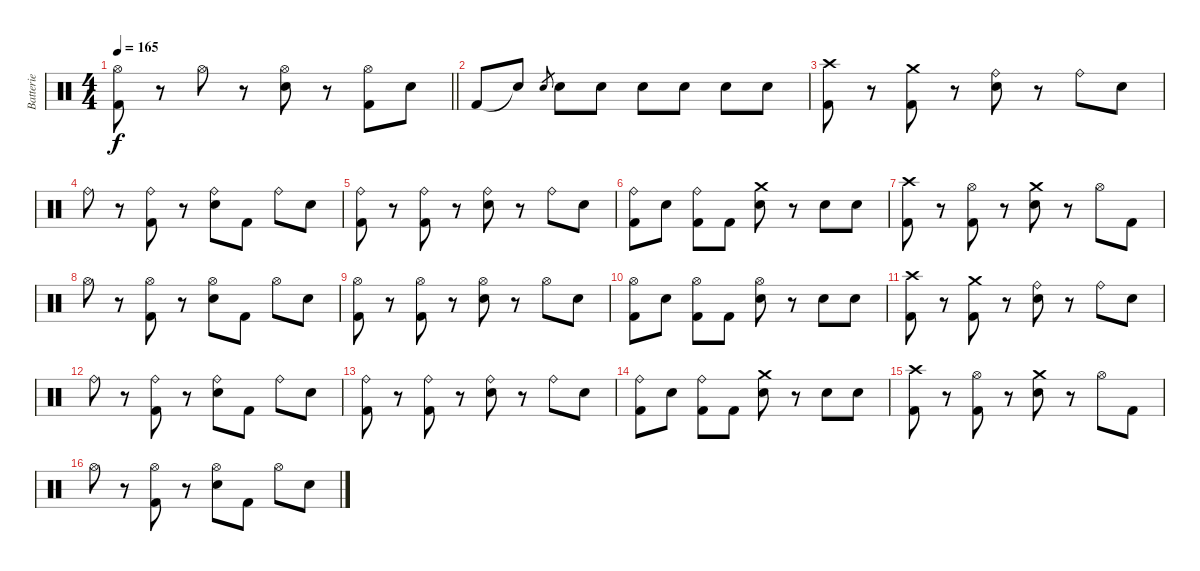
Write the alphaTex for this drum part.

\track ("Batterie" "Batterie") {instrument percussion}
\staff {score}
\articulation defaults
\ts (4 4)
\tempo 165
\clef neutral
\barLineRight lightlight
\ks c
("Hi-Hat (open)" "Kick (hit) 2").8{dy f} r.8 "Hi-Hat (open)".8 r.8 ("Hi-Hat (open)" "Electric Snare (hit)").8 r.8 ("Hi-Hat (open)" "Kick (hit) 2").8 "Electric Snare (hit)".8 |
"Kick (hit) 2".8 "Snare (hit)"{t}.8 "Electric Snare (hit)".8{gr} "Electric Snare (hit)".8 "Electric Snare (hit)".8 "Electric Snare (hit)".8 "Electric Snare (hit)".8 "Electric Snare (hit)".8 "Electric Snare (hit)".8 |
("Crash high (hit)" "Kick (hit) 2").8 r.8 ("Crash medium (hit)" "Kick (hit) 2").8 r.8 ("Ride (bell)" "Electric Snare (hit)").8 r.8 "Ride (bell)".8 "Electric Snare (hit)".8 |
"Ride (bell)".8 r.8 ("Ride (bell)" "Kick (hit) 2").8 r.8 ("Ride (bell)" "Electric Snare (hit)").8 "Kick (hit) 2".8 "Ride (bell)".8 "Electric Snare (hit)".8 |
("Ride (bell)" "Kick (hit) 2").8 r.8 ("Ride (bell)" "Kick (hit) 2").8 r.8 ("Ride (bell)" "Electric Snare (hit)").8 r.8 "Ride (bell)".8 "Electric Snare (hit)".8 |
("Ride (bell)" "Kick (hit) 2").8 "Electric Snare (hit)".8 ("Ride (bell)" "Kick (hit) 2").8 "Kick (hit) 2".8 ("Crash medium (hit)" "Electric Snare (hit)").8 r.8 "Electric Snare (hit)".8 "Electric Snare (hit)".8 |
("Crash high (hit)" "Kick (hit) 2").8 r.8 ("Hi-Hat (open)" "Kick (hit) 2").8 r.8 ("Crash medium (hit)" "Electric Snare (hit)").8 r.8 "Hi-Hat (open)".8 "Kick (hit) 2".8 |
"Hi-Hat (open)".8 r.8 ("Hi-Hat (open)" "Kick (hit) 2").8 r.8 ("Hi-Hat (open)" "Electric Snare (hit)").8 "Kick (hit) 2".8 "Hi-Hat (open)".8 "Electric Snare (hit)".8 |
("Hi-Hat (open)" "Kick (hit) 2").8 r.8 ("Hi-Hat (open)" "Kick (hit) 2").8 r.8 ("Hi-Hat (open)" "Electric Snare (hit)").8 r.8 "Hi-Hat (open)".8 "Electric Snare (hit)".8 |
("Hi-Hat (open)" "Kick (hit) 2").8 "Electric Snare (hit)".8 ("Hi-Hat (open)" "Kick (hit) 2").8 "Kick (hit) 2".8 ("Hi-Hat (open)" "Electric Snare (hit)").8 r.8 "Electric Snare (hit)".8 "Electric Snare (hit)".8 |
("Crash high (hit)" "Kick (hit) 2").8 r.8 ("Crash medium (hit)" "Kick (hit) 2").8 r.8 ("Ride (bell)" "Electric Snare (hit)").8 r.8 "Ride (bell)".8 "Electric Snare (hit)".8 |
"Ride (bell)".8 r.8 ("Ride (bell)" "Kick (hit) 2").8 r.8 ("Ride (bell)" "Electric Snare (hit)").8 "Kick (hit) 2".8 "Ride (bell)".8 "Electric Snare (hit)".8 |
("Ride (bell)" "Kick (hit) 2").8 r.8 ("Ride (bell)" "Kick (hit) 2").8 r.8 ("Ride (bell)" "Electric Snare (hit)").8 r.8 "Ride (bell)".8 "Electric Snare (hit)".8 |
("Ride (bell)" "Kick (hit) 2").8 "Electric Snare (hit)".8 ("Ride (bell)" "Kick (hit) 2").8 "Kick (hit) 2".8 ("Crash medium (hit)" "Electric Snare (hit)").8 r.8 "Electric Snare (hit)".8 "Electric Snare (hit)".8 |
("Crash high (hit)" "Kick (hit) 2").8 r.8 ("Hi-Hat (open)" "Kick (hit) 2").8 r.8 ("Crash medium (hit)" "Electric Snare (hit)").8 r.8 "Hi-Hat (open)".8 "Kick (hit) 2".8 |
"Hi-Hat (open)".8 r.8 ("Hi-Hat (open)" "Kick (hit) 2").8 r.8 ("Hi-Hat (open)" "Electric Snare (hit)").8 "Kick (hit) 2".8 "Hi-Hat (open)".8 "Electric Snare (hit)".8
